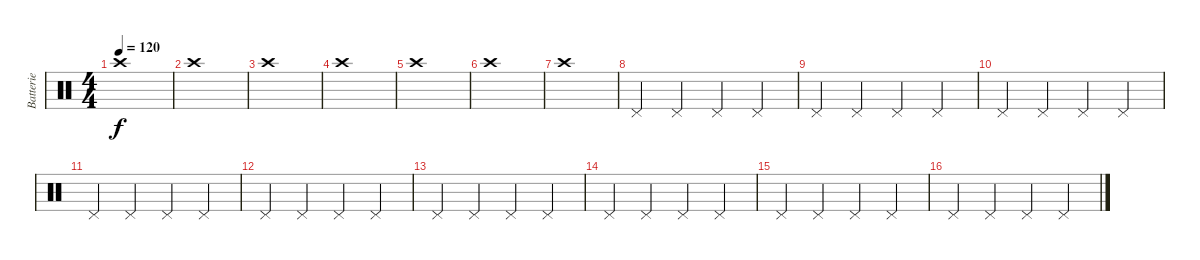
\track ("Batterie" "Batterie") {instrument percussion}
\staff {score}
\articulation defaults
\ts (4 4)
\tempo 120
\clef neutral
\ks c "Crash high (hit)".1{dy f}
|
"Crash high (hit)".1 |
"Crash high (hit)".1 |
"Crash high (hit)".1 |
"Crash high (hit)".1 |
"Crash high (hit)".1 |
"Crash high (hit)".1 |
"Pedal Hi-Hat (hit)".4 "Pedal Hi-Hat (hit)".4 "Pedal Hi-Hat (hit)".4 "Pedal Hi-Hat (hit)".4 |
"Pedal Hi-Hat (hit)".4 "Pedal Hi-Hat (hit)".4 "Pedal Hi-Hat (hit)".4 "Pedal Hi-Hat (hit)".4 |
"Pedal Hi-Hat (hit)".4 "Pedal Hi-Hat (hit)".4 "Pedal Hi-Hat (hit)".4 "Pedal Hi-Hat (hit)".4 |
"Pedal Hi-Hat (hit)".4 "Pedal Hi-Hat (hit)".4 "Pedal Hi-Hat (hit)".4 "Pedal Hi-Hat (hit)".4 |
"Pedal Hi-Hat (hit)".4 "Pedal Hi-Hat (hit)".4 "Pedal Hi-Hat (hit)".4 "Pedal Hi-Hat (hit)".4 |
"Pedal Hi-Hat (hit)".4 "Pedal Hi-Hat (hit)".4 "Pedal Hi-Hat (hit)".4 "Pedal Hi-Hat (hit)".4 |
"Pedal Hi-Hat (hit)".4 "Pedal Hi-Hat (hit)".4 "Pedal Hi-Hat (hit)".4 "Pedal Hi-Hat (hit)".4 |
"Pedal Hi-Hat (hit)".4 "Pedal Hi-Hat (hit)".4 "Pedal Hi-Hat (hit)".4 "Pedal Hi-Hat (hit)".4 |
"Pedal Hi-Hat (hit)".4 "Pedal Hi-Hat (hit)".4 "Pedal Hi-Hat (hit)".4 "Pedal Hi-Hat (hit)".4
